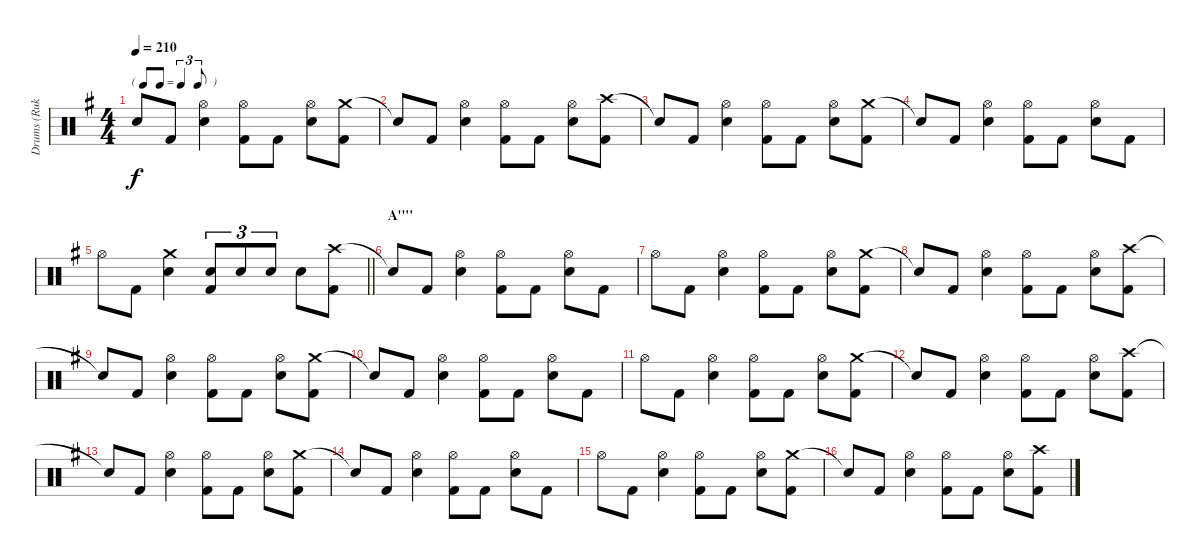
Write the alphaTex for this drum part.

\track ("Drums (Ruka)" "Drums (Ruk") {instrument percussion}
\staff {score}
\articulation defaults
\ts (4 4)
\tf triplet8th
\tempo 210
\clef neutral
\ks g "Snare (hit)"{t}.8{dy f} "Kick (hit) 2".8
("Hi-Hat (open)" "Electric Snare (hit)").4 ("Hi-Hat (open)" "Kick (hit) 2").8 "Kick (hit) 2".8 ("Hi-Hat (open)" "Electric Snare (hit)").8 ("Crash medium (hit)" "Kick (hit) 2").8 |
"Snare (hit)"{t}.8 "Kick (hit) 2".8 ("Hi-Hat (open)" "Electric Snare (hit)").4 ("Hi-Hat (open)" "Kick (hit) 2").8 "Kick (hit) 2".8 ("Hi-Hat (open)" "Electric Snare (hit)").8 ("Crash high (hit)" "Kick (hit) 2").8 |
"Snare (hit)"{t}.8 "Kick (hit) 2".8 ("Hi-Hat (open)" "Electric Snare (hit)").4 ("Hi-Hat (open)" "Kick (hit) 2").8 "Kick (hit) 2".8 ("Hi-Hat (open)" "Electric Snare (hit)").8 ("Crash medium (hit)" "Kick (hit) 2").8 |
"Snare (hit)"{t}.8 "Kick (hit) 2".8 ("Hi-Hat (open)" "Electric Snare (hit)").4 ("Hi-Hat (open)" "Kick (hit) 2").8 "Kick (hit) 2".8 ("Hi-Hat (open)" "Electric Snare (hit)").8 "Kick (hit) 2".8 |
\barLineRight lightlight "Hi-Hat (open)".8 "Kick (hit) 2".8
("Crash medium (hit)" "Electric Snare (hit)").4 ("Electric Snare (hit)" "Kick (hit) 2").8{tu (3 2)} "Electric Snare (hit)".8{tu (3 2)} "Electric Snare (hit)".8{tu (3 2)} "Electric Snare (hit)".8 ("Crash high (hit)" "Kick (hit) 2").8 |
\section ("" "A''''")
"Snare (hit)"{t}.8 "Kick (hit) 2".8 ("Hi-Hat (open)" "Electric Snare (hit)").4 ("Hi-Hat (open)" "Kick (hit) 2").8 "Kick (hit) 2".8 ("Hi-Hat (open)" "Electric Snare (hit)").8 "Kick (hit) 2".8 |
"Hi-Hat (open)".8 "Kick (hit) 2".8 ("Hi-Hat (open)" "Electric Snare (hit)").4 ("Hi-Hat (open)" "Kick (hit) 2").8 "Kick (hit) 2".8 ("Hi-Hat (open)" "Electric Snare (hit)").8 ("Crash medium (hit)" "Kick (hit) 2").8 |
"Snare (hit)"{t}.8 "Kick (hit) 2".8 ("Hi-Hat (open)" "Electric Snare (hit)").4 ("Hi-Hat (open)" "Kick (hit) 2").8 "Kick (hit) 2".8 ("Hi-Hat (open)" "Electric Snare (hit)").8 ("Crash high (hit)" "Kick (hit) 2").8 |
"Snare (hit)"{t}.8 "Kick (hit) 2".8 ("Hi-Hat (open)" "Electric Snare (hit)").4 ("Hi-Hat (open)" "Kick (hit) 2").8 "Kick (hit) 2".8 ("Hi-Hat (open)" "Electric Snare (hit)").8 ("Crash medium (hit)" "Kick (hit) 2").8 |
"Snare (hit)"{t}.8 "Kick (hit) 2".8 ("Hi-Hat (open)" "Electric Snare (hit)").4 ("Hi-Hat (open)" "Kick (hit) 2").8 "Kick (hit) 2".8 ("Hi-Hat (open)" "Electric Snare (hit)").8 "Kick (hit) 2".8 |
"Hi-Hat (open)".8 "Kick (hit) 2".8 ("Hi-Hat (open)" "Electric Snare (hit)").4 ("Hi-Hat (open)" "Kick (hit) 2").8 "Kick (hit) 2".8 ("Hi-Hat (open)" "Electric Snare (hit)").8 ("Crash medium (hit)" "Kick (hit) 2").8 |
"Snare (hit)"{t}.8 "Kick (hit) 2".8 ("Hi-Hat (open)" "Electric Snare (hit)").4 ("Hi-Hat (open)" "Kick (hit) 2").8 "Kick (hit) 2".8 ("Hi-Hat (open)" "Electric Snare (hit)").8 ("Crash high (hit)" "Kick (hit) 2").8 |
"Snare (hit)"{t}.8 "Kick (hit) 2".8 ("Hi-Hat (open)" "Electric Snare (hit)").4 ("Hi-Hat (open)" "Kick (hit) 2").8 "Kick (hit) 2".8 ("Hi-Hat (open)" "Electric Snare (hit)").8 ("Crash medium (hit)" "Kick (hit) 2").8 |
"Snare (hit)"{t}.8 "Kick (hit) 2".8 ("Hi-Hat (open)" "Electric Snare (hit)").4 ("Hi-Hat (open)" "Kick (hit) 2").8 "Kick (hit) 2".8 ("Hi-Hat (open)" "Electric Snare (hit)").8 "Kick (hit) 2".8 |
"Hi-Hat (open)".8 "Kick (hit) 2".8 ("Hi-Hat (open)" "Electric Snare (hit)").4 ("Hi-Hat (open)" "Kick (hit) 2").8 "Kick (hit) 2".8 ("Hi-Hat (open)" "Electric Snare (hit)").8 ("Crash medium (hit)" "Kick (hit) 2").8 |
"Snare (hit)"{t}.8 "Kick (hit) 2".8 ("Hi-Hat (open)" "Electric Snare (hit)").4 ("Hi-Hat (open)" "Kick (hit) 2").8 "Kick (hit) 2".8 ("Hi-Hat (open)" "Electric Snare (hit)").8 ("Crash high (hit)" "Kick (hit) 2").8
